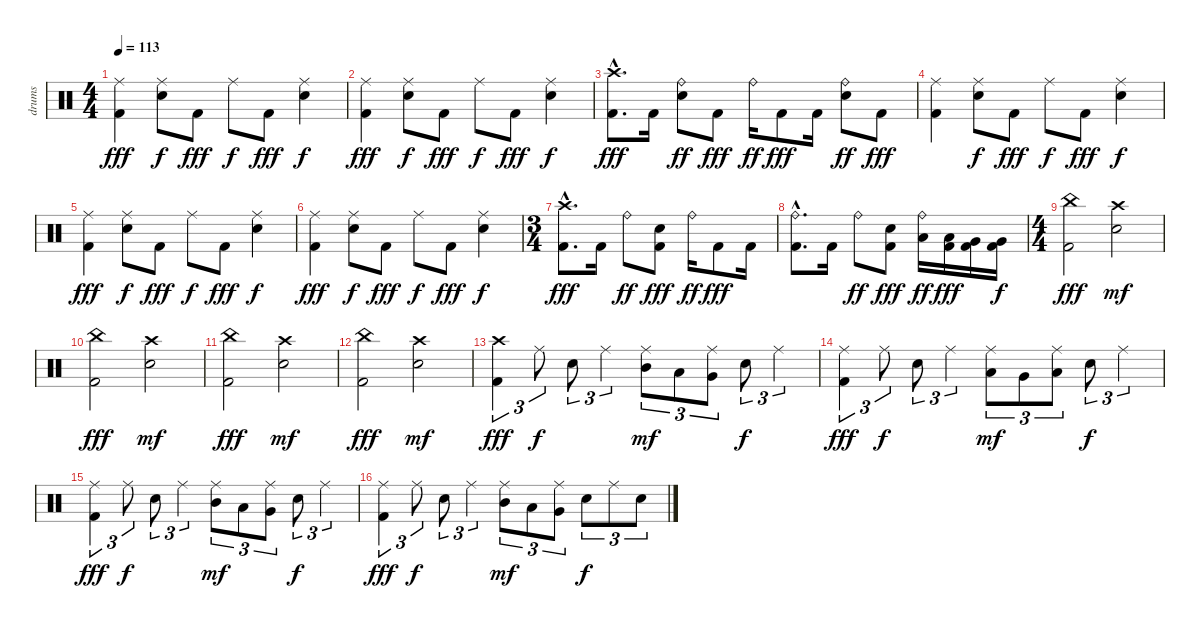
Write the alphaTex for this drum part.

\track ("drums" "drums") {instrument percussion}
\staff {score}
\articulation defaults
\ts (4 4)
\tempo 113
\clef neutral
\ks c
("Ride (middle)" "Kick (hit) 2").4{dy fff} ("Ride (middle)" "Electric Snare (hit)").8{dy f} "Kick (hit) 2".8{dy fff} "Ride (middle)".8{dy f} "Kick (hit) 2".8{dy fff} ("Ride (middle)" "Electric Snare (hit)").4{dy f} |
("Ride (middle)" "Kick (hit) 2").4{dy fff} ("Ride (middle)" "Electric Snare (hit)").8{dy f} "Kick (hit) 2".8{dy fff} "Ride (middle)".8{dy f} "Kick (hit) 2".8{dy fff} ("Ride (middle)" "Electric Snare (hit)").4{dy f} |
("Crash high (hit)"{hac} "Kick (hit) 2"{hac}).8{d dy fff} "Kick (hit) 2".16 ("Ride (bell)" "Electric Snare (hit)").8{dy ff} "Kick (hit) 2".8{dy fff} "Ride (bell)".16{dy ff} "Kick (hit) 2".8{dy fff} "Kick (hit) 2".16 ("Ride (bell)" "Electric Snare (hit)").8{dy ff} "Kick (hit) 2".8{dy fff} |
("Ride (middle)" "Kick (hit) 2").4 ("Ride (middle)" "Electric Snare (hit)").8{dy f} "Kick (hit) 2".8{dy fff} "Ride (middle)".8{dy f} "Kick (hit) 2".8{dy fff} ("Ride (middle)" "Electric Snare (hit)").4{dy f} |
("Ride (middle)" "Kick (hit) 2").4{dy fff} ("Ride (middle)" "Electric Snare (hit)").8{dy f} "Kick (hit) 2".8{dy fff} "Ride (middle)".8{dy f} "Kick (hit) 2".8{dy fff} ("Ride (middle)" "Electric Snare (hit)").4{dy f} |
("Ride (middle)" "Kick (hit) 2").4{dy fff} ("Ride (middle)" "Electric Snare (hit)").8{dy f} "Kick (hit) 2".8{dy fff} "Ride (middle)".8{dy f} "Kick (hit) 2".8{dy fff} ("Ride (middle)" "Electric Snare (hit)").4{dy f} |
\ts (3 4)
("Crash high (hit)"{hac} "Kick (hit) 2"{hac}).8{d dy fff} "Kick (hit) 2".16 "Ride (bell)".8{dy ff} ("Electric Snare (hit)" "Kick (hit) 2").8{dy fff} "Ride (bell)".16{dy ff} "Kick (hit) 2".8{dy fff} "Kick (hit) 2".16 |
("Ride (bell)"{hac} "Kick (hit) 2"{hac}).8{d} "Kick (hit) 2".16 "Ride (bell)".8{dy ff} ("Electric Snare (hit)" "Kick (hit) 2").8{dy fff} ("Ride (bell)" "Low Tom (hit)").16{dy ff} ("Low Tom (hit)" "Kick (hit) 2").16{dy fff} ("Very Low Tom (hit)" "Kick (hit) 2").16 ("Very Low Tom (hit)" "Kick (hit) 2").16{dy f} |
\ts (4 4)
("China (hit)" "Kick (hit) 2").2{dy fff} ("Crash high (hit)" "Electric Snare (hit)").2{dy mf} |
("China (hit)" "Kick (hit) 2").2{dy fff} ("Crash high (hit)" "Electric Snare (hit)").2{dy mf} |
("China (hit)" "Kick (hit) 2").2{dy fff} ("Crash high (hit)" "Electric Snare (hit)").2{dy mf} |
("China (hit)" "Kick (hit) 2").2{dy fff} ("Crash high (hit)" "Electric Snare (hit)").2{dy mf} |
("Crash high (hit)" "Kick (hit) 2").4{tu (3 2) dy fff} "Ride (middle)".8{tu (3 2) dy f} "Electric Snare (hit)".8{tu (3 2)} "Ride (middle)".4{tu (3 2)} ("Ride (middle)" "Mid Tom (hit)").8{tu (3 2) dy mf} "Low Tom (hit)".8{tu (3 2)} ("Ride (middle)" "Very Low Tom (hit)").8{tu (3 2)} "Electric Snare (hit)".8{tu (3 2) dy f} "Ride (middle)".4{tu (3 2)} |
("Ride (middle)" "Kick (hit) 2").4{tu (3 2) dy fff} "Ride (middle)".8{tu (3 2) dy f} "Electric Snare (hit)".8{tu (3 2)} "Ride (middle)".4{tu (3 2)} ("Ride (middle)" "Low Tom (hit)").8{tu (3 2) dy mf} "Very Low Tom (hit)".8{tu (3 2)} ("Ride (middle)" "Low Floor Tom (hit)").8{tu (3 2)} "Electric Snare (hit)".8{tu (3 2) dy f} "Ride (middle)".4{tu (3 2)} |
("Ride (middle)" "Kick (hit) 2").4{tu (3 2) dy fff} "Ride (middle)".8{tu (3 2) dy f} "Electric Snare (hit)".8{tu (3 2)} "Ride (middle)".4{tu (3 2)} ("Ride (middle)" "Mid Tom (hit)").8{tu (3 2) dy mf} "Low Tom (hit)".8{tu (3 2)} ("Ride (middle)" "Very Low Tom (hit)").8{tu (3 2)} "Electric Snare (hit)".8{tu (3 2) dy f} "Ride (middle)".4{tu (3 2)} |
("Ride (middle)" "Kick (hit) 2").4{tu (3 2) dy fff} "Ride (middle)".8{tu (3 2) dy f} "Electric Snare (hit)".8{tu (3 2)} "Ride (middle)".4{tu (3 2)} ("Ride (middle)" "Mid Tom (hit)").8{tu (3 2) dy mf} "Low Tom (hit)".8{tu (3 2)} ("Ride (middle)" "Very Low Tom (hit)").8{tu (3 2)} "Electric Snare (hit)".8{tu (3 2) dy f} "Ride (middle)".8{tu (3 2)} "Electric Snare (hit)".8{tu (3 2)}
